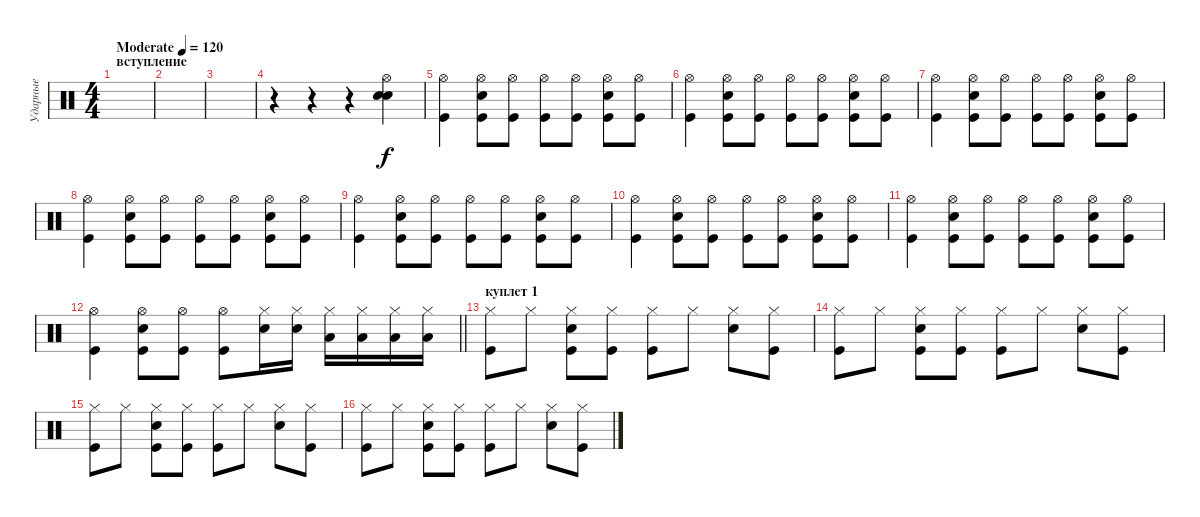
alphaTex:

\track ("Ударные" "Ударные") {instrument percussion}
\staff {score}
\articulation defaults
\ts (4 4)
\section ("" "вступление")
\tempo (120 "Moderate")
\clef neutral
\ks c
|
|
|
r.4 r.4 r.4 ("Hi-Hat (open)" "Metronome (bell)" "Snare (hit) 2").4 |
("Hi-Hat (open)" "Kick (hit)").4 ("Hi-Hat (open)" "Snare (hit) 2" "Kick (hit)").8 ("Hi-Hat (open)" "Kick (hit)").8 ("Hi-Hat (open)" "Kick (hit)").8 ("Hi-Hat (open)" "Kick (hit)").8 ("Hi-Hat (open)" "Snare (hit) 2" "Kick (hit)").8 ("Hi-Hat (open)" "Kick (hit)").8 |
("Hi-Hat (open)" "Kick (hit)").4 ("Hi-Hat (open)" "Snare (hit) 2" "Kick (hit)").8 ("Hi-Hat (open)" "Kick (hit)").8 ("Hi-Hat (open)" "Kick (hit)").8 ("Hi-Hat (open)" "Kick (hit)").8 ("Hi-Hat (open)" "Snare (hit) 2" "Kick (hit)").8 ("Hi-Hat (open)" "Kick (hit)").8 |
("Hi-Hat (open)" "Kick (hit)").4 ("Hi-Hat (open)" "Snare (hit) 2" "Kick (hit)").8 ("Hi-Hat (open)" "Kick (hit)").8 ("Hi-Hat (open)" "Kick (hit)").8 ("Hi-Hat (open)" "Kick (hit)").8 ("Hi-Hat (open)" "Snare (hit) 2" "Kick (hit)").8 ("Hi-Hat (open)" "Kick (hit)").8 |
("Hi-Hat (open)" "Kick (hit)").4 ("Hi-Hat (open)" "Snare (hit) 2" "Kick (hit)").8 ("Hi-Hat (open)" "Kick (hit)").8 ("Hi-Hat (open)" "Kick (hit)").8 ("Hi-Hat (open)" "Kick (hit)").8 ("Hi-Hat (open)" "Snare (hit) 2" "Kick (hit)").8 ("Hi-Hat (open)" "Kick (hit)").8 |
("Hi-Hat (open)" "Kick (hit)").4 ("Hi-Hat (open)" "Snare (hit) 2" "Kick (hit)").8 ("Hi-Hat (open)" "Kick (hit)").8 ("Hi-Hat (open)" "Kick (hit)").8 ("Hi-Hat (open)" "Kick (hit)").8 ("Hi-Hat (open)" "Snare (hit) 2" "Kick (hit)").8 ("Hi-Hat (open)" "Kick (hit)").8 |
("Hi-Hat (open)" "Kick (hit)").4 ("Hi-Hat (open)" "Snare (hit) 2" "Kick (hit)").8 ("Hi-Hat (open)" "Kick (hit)").8 ("Hi-Hat (open)" "Kick (hit)").8 ("Hi-Hat (open)" "Kick (hit)").8 ("Hi-Hat (open)" "Snare (hit) 2" "Kick (hit)").8 ("Hi-Hat (open)" "Kick (hit)").8 |
("Hi-Hat (open)" "Kick (hit)").4 ("Hi-Hat (open)" "Snare (hit) 2" "Kick (hit)").8 ("Hi-Hat (open)" "Kick (hit)").8 ("Hi-Hat (open)" "Kick (hit)").8 ("Hi-Hat (open)" "Kick (hit)").8 ("Hi-Hat (open)" "Snare (hit) 2" "Kick (hit)").8 ("Hi-Hat (open)" "Kick (hit)").8 |
\barLineRight lightlight
("Hi-Hat (open)" "Kick (hit)").4 ("Hi-Hat (open)" "Snare (hit) 2" "Kick (hit)").8 ("Hi-Hat (open)" "Kick (hit)").8 ("Hi-Hat (open)" "Kick (hit)").8 ("Hi-Hat (closed)" "Snare (hit) 2").16 ("Hi-Hat (closed)" "Snare (hit) 2").16 ("Hi-Hat (closed)" "Low Tom (hit)").16 ("Hi-Hat (closed)" "Low Tom (hit)").16 ("Hi-Hat (closed)" "Low Floor Tom (hit)").16 ("Hi-Hat (closed)" "Low Floor Tom (hit)").16 |
\section ("" "куплет 1")
("Hi-Hat (closed)" "Kick (hit)").8 "Hi-Hat (closed)".8 ("Hi-Hat (closed)" "Snare (hit) 2" "Kick (hit)").8 ("Hi-Hat (closed)" "Kick (hit)").8 ("Hi-Hat (closed)" "Kick (hit)").8 "Hi-Hat (closed)".8 ("Hi-Hat (closed)" "Snare (hit) 2").8 ("Hi-Hat (closed)" "Kick (hit)").8 |
("Hi-Hat (closed)" "Kick (hit)").8 "Hi-Hat (closed)".8 ("Hi-Hat (closed)" "Snare (hit) 2" "Kick (hit)").8 ("Hi-Hat (closed)" "Kick (hit)").8 ("Hi-Hat (closed)" "Kick (hit)").8 "Hi-Hat (closed)".8 ("Hi-Hat (closed)" "Snare (hit) 2").8 ("Hi-Hat (closed)" "Kick (hit)").8 |
("Hi-Hat (closed)" "Kick (hit)").8 "Hi-Hat (closed)".8 ("Hi-Hat (closed)" "Snare (hit) 2" "Kick (hit)").8 ("Hi-Hat (closed)" "Kick (hit)").8 ("Hi-Hat (closed)" "Kick (hit)").8 "Hi-Hat (closed)".8 ("Hi-Hat (closed)" "Snare (hit) 2").8 ("Hi-Hat (closed)" "Kick (hit)").8 |
("Hi-Hat (closed)" "Kick (hit)").8 "Hi-Hat (closed)".8 ("Hi-Hat (closed)" "Snare (hit) 2" "Kick (hit)").8 ("Hi-Hat (closed)" "Kick (hit)").8 ("Hi-Hat (closed)" "Kick (hit)").8 "Hi-Hat (closed)".8 ("Hi-Hat (closed)" "Snare (hit) 2").8 ("Hi-Hat (closed)" "Kick (hit)").8
